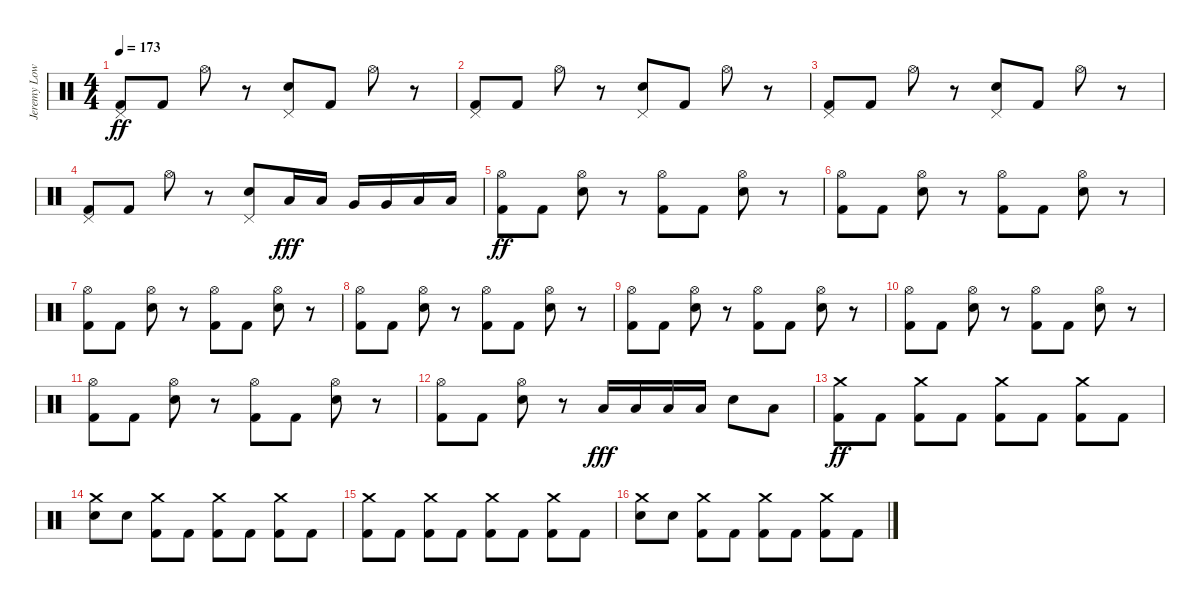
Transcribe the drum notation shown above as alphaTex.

\track ("Jeremy Lowery" "Jeremy Low") {instrument percussion}
\staff {score}
\articulation defaults
\ts (4 4)
\tempo 173
\clef neutral
\ks c
("Pedal Hi-Hat (hit)" "Kick (hit) 2").8{dy ff} "Kick (hit) 2".8 "Hi-Hat (open)".8 r.8 ("Pedal Hi-Hat (hit)" "Electric Snare (hit)").8 "Kick (hit) 2".8 "Hi-Hat (open)".8 r.8 |
("Pedal Hi-Hat (hit)" "Kick (hit) 2").8 "Kick (hit) 2".8 "Hi-Hat (open)".8 r.8 ("Pedal Hi-Hat (hit)" "Electric Snare (hit)").8 "Kick (hit) 2".8 "Hi-Hat (open)".8 r.8 |
("Pedal Hi-Hat (hit)" "Kick (hit) 2").8 "Kick (hit) 2".8 "Hi-Hat (open)".8 r.8 ("Pedal Hi-Hat (hit)" "Electric Snare (hit)").8 "Kick (hit) 2".8 "Hi-Hat (open)".8 r.8 |
("Pedal Hi-Hat (hit)" "Kick (hit) 2").8 "Kick (hit) 2".8 "Hi-Hat (open)".8 r.8 ("Pedal Hi-Hat (hit)" "Electric Snare (hit)").8 "Low Tom (hit)".16{dy fff} "Low Tom (hit)".16 "Very Low Tom (hit)".16 "Very Low Tom (hit)".16 "Low Floor Tom (hit)".16 "Low Floor Tom (hit)".16 |
("Hi-Hat (open)" "Kick (hit) 2").8{dy ff} "Kick (hit) 2".8 ("Hi-Hat (open)" "Electric Snare (hit)").8 r.8 ("Hi-Hat (open)" "Kick (hit) 2").8 "Kick (hit) 2".8 ("Hi-Hat (open)" "Electric Snare (hit)").8 r.8 |
("Hi-Hat (open)" "Kick (hit) 2").8 "Kick (hit) 2".8 ("Hi-Hat (open)" "Electric Snare (hit)").8 r.8 ("Hi-Hat (open)" "Kick (hit) 2").8 "Kick (hit) 2".8 ("Hi-Hat (open)" "Electric Snare (hit)").8 r.8 |
("Hi-Hat (open)" "Kick (hit) 2").8 "Kick (hit) 2".8 ("Hi-Hat (open)" "Electric Snare (hit)").8 r.8 ("Hi-Hat (open)" "Kick (hit) 2").8 "Kick (hit) 2".8 ("Hi-Hat (open)" "Electric Snare (hit)").8 r.8 |
("Hi-Hat (open)" "Kick (hit) 2").8 "Kick (hit) 2".8 ("Hi-Hat (open)" "Electric Snare (hit)").8 r.8 ("Hi-Hat (open)" "Kick (hit) 2").8 "Kick (hit) 2".8 ("Hi-Hat (open)" "Electric Snare (hit)").8 r.8 |
("Hi-Hat (open)" "Kick (hit) 2").8 "Kick (hit) 2".8 ("Hi-Hat (open)" "Electric Snare (hit)").8 r.8 ("Hi-Hat (open)" "Kick (hit) 2").8 "Kick (hit) 2".8 ("Hi-Hat (open)" "Electric Snare (hit)").8 r.8 |
("Hi-Hat (open)" "Kick (hit) 2").8 "Kick (hit) 2".8 ("Hi-Hat (open)" "Electric Snare (hit)").8 r.8 ("Hi-Hat (open)" "Kick (hit) 2").8 "Kick (hit) 2".8 ("Hi-Hat (open)" "Electric Snare (hit)").8 r.8 |
("Hi-Hat (open)" "Kick (hit) 2").8 "Kick (hit) 2".8 ("Hi-Hat (open)" "Electric Snare (hit)").8 r.8 ("Hi-Hat (open)" "Kick (hit) 2").8 "Kick (hit) 2".8 ("Hi-Hat (open)" "Electric Snare (hit)").8 r.8 |
("Hi-Hat (open)" "Kick (hit) 2").8 "Kick (hit) 2".8 ("Hi-Hat (open)" "Electric Snare (hit)").8 r.8 "Low Floor Tom (hit)".16{dy fff} "Low Floor Tom (hit)".16 "Low Floor Tom (hit)".16 "Low Floor Tom (hit)".16 "Electric Snare (hit)".8 "Low Floor Tom (hit)".8 |
("Crash medium (hit)" "Kick (hit) 2").8{dy ff} "Kick (hit) 2".8 ("Crash medium (hit)" "Kick (hit) 2").8 "Kick (hit) 2".8 ("Crash medium (hit)" "Kick (hit) 2").8 "Kick (hit) 2".8 ("Crash medium (hit)" "Kick (hit) 2").8 "Kick (hit) 2".8 |
("Crash medium (hit)" "Electric Snare (hit)").8 "Electric Snare (hit)".8 ("Crash medium (hit)" "Kick (hit) 2").8 "Kick (hit) 2".8 ("Crash medium (hit)" "Kick (hit) 2").8 "Kick (hit) 2".8 ("Crash medium (hit)" "Kick (hit) 2").8 "Kick (hit) 2".8 |
("Crash medium (hit)" "Kick (hit) 2").8 "Kick (hit) 2".8 ("Crash medium (hit)" "Kick (hit) 2").8 "Kick (hit) 2".8 ("Crash medium (hit)" "Kick (hit) 2").8 "Kick (hit) 2".8 ("Crash medium (hit)" "Kick (hit) 2").8 "Kick (hit) 2".8 |
("Crash medium (hit)" "Electric Snare (hit)").8 "Electric Snare (hit)".8 ("Crash medium (hit)" "Kick (hit) 2").8 "Kick (hit) 2".8 ("Crash medium (hit)" "Kick (hit) 2").8 "Kick (hit) 2".8 ("Crash medium (hit)" "Kick (hit) 2").8 "Kick (hit) 2".8
